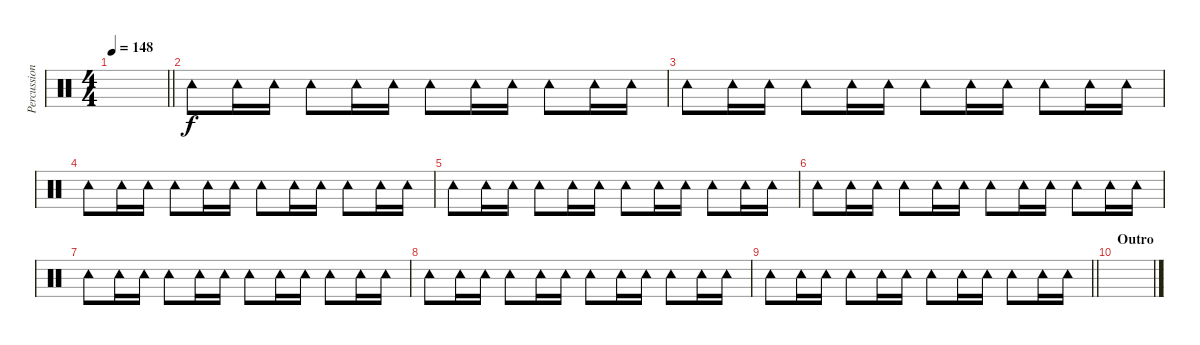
\track ("Percussion" "Percussion") {instrument percussion}
\staff {score}
\articulation defaults
\ts (4 4)
\tempo 148
\clef neutral
\barLineRight lightlight
\ks c
|
"Tambourine (hit)".8 "Tambourine (hit)".16 "Tambourine (hit)".16 "Tambourine (hit)".8 "Tambourine (hit)".16 "Tambourine (hit)".16 "Tambourine (hit)".8 "Tambourine (hit)".16 "Tambourine (hit)".16 "Tambourine (hit)".8 "Tambourine (hit)".16 "Tambourine (hit)".16 |
"Tambourine (hit)".8 "Tambourine (hit)".16 "Tambourine (hit)".16 "Tambourine (hit)".8 "Tambourine (hit)".16 "Tambourine (hit)".16 "Tambourine (hit)".8 "Tambourine (hit)".16 "Tambourine (hit)".16 "Tambourine (hit)".8 "Tambourine (hit)".16 "Tambourine (hit)".16 |
"Tambourine (hit)".8 "Tambourine (hit)".16 "Tambourine (hit)".16 "Tambourine (hit)".8 "Tambourine (hit)".16 "Tambourine (hit)".16 "Tambourine (hit)".8 "Tambourine (hit)".16 "Tambourine (hit)".16 "Tambourine (hit)".8 "Tambourine (hit)".16 "Tambourine (hit)".16 |
"Tambourine (hit)".8 "Tambourine (hit)".16 "Tambourine (hit)".16 "Tambourine (hit)".8 "Tambourine (hit)".16 "Tambourine (hit)".16 "Tambourine (hit)".8 "Tambourine (hit)".16 "Tambourine (hit)".16 "Tambourine (hit)".8 "Tambourine (hit)".16 "Tambourine (hit)".16 |
"Tambourine (hit)".8 "Tambourine (hit)".16 "Tambourine (hit)".16 "Tambourine (hit)".8 "Tambourine (hit)".16 "Tambourine (hit)".16 "Tambourine (hit)".8 "Tambourine (hit)".16 "Tambourine (hit)".16 "Tambourine (hit)".8 "Tambourine (hit)".16 "Tambourine (hit)".16 |
"Tambourine (hit)".8 "Tambourine (hit)".16 "Tambourine (hit)".16 "Tambourine (hit)".8 "Tambourine (hit)".16 "Tambourine (hit)".16 "Tambourine (hit)".8 "Tambourine (hit)".16 "Tambourine (hit)".16 "Tambourine (hit)".8 "Tambourine (hit)".16 "Tambourine (hit)".16 |
"Tambourine (hit)".8 "Tambourine (hit)".16 "Tambourine (hit)".16 "Tambourine (hit)".8 "Tambourine (hit)".16 "Tambourine (hit)".16 "Tambourine (hit)".8 "Tambourine (hit)".16 "Tambourine (hit)".16 "Tambourine (hit)".8 "Tambourine (hit)".16 "Tambourine (hit)".16 |
\barLineRight lightlight "Tambourine (hit)".8 "Tambourine (hit)".16 "Tambourine (hit)".16 "Tambourine (hit)".8 "Tambourine (hit)".16 "Tambourine (hit)".16 "Tambourine (hit)".8 "Tambourine (hit)".16 "Tambourine (hit)".16 "Tambourine (hit)".8 "Tambourine (hit)".16 "Tambourine (hit)".16
|
\section ("" "Outro")
